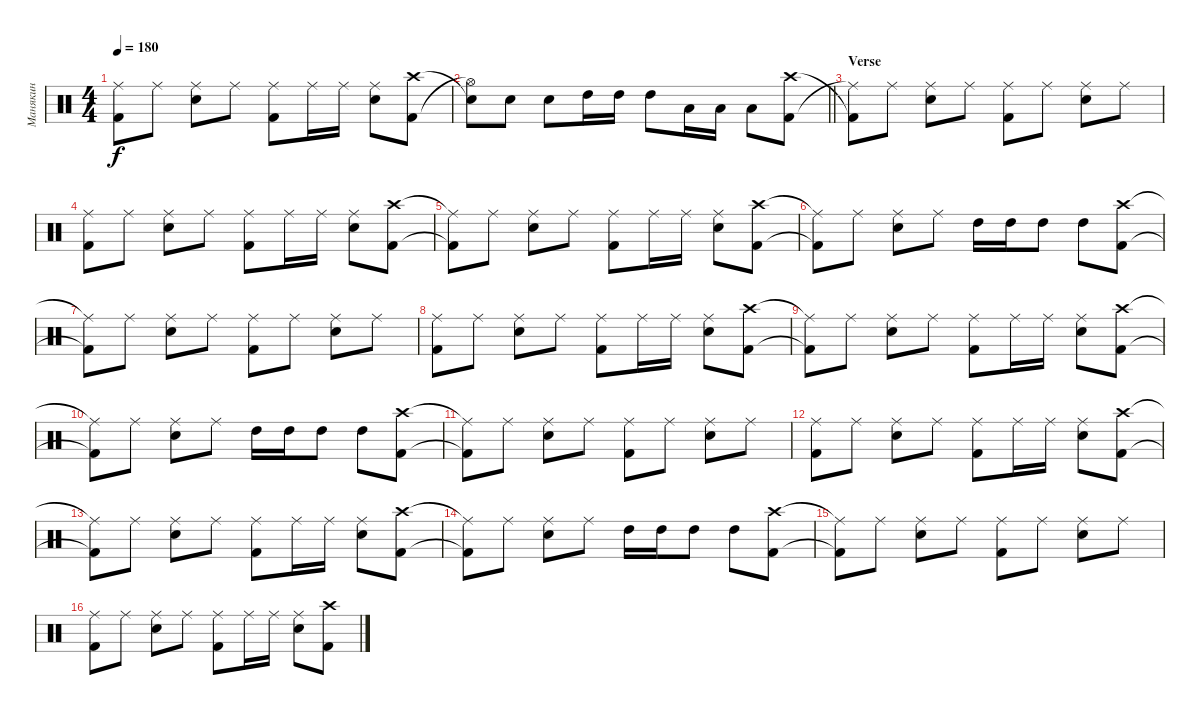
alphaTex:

\track ("Манякин" "Манякин") {instrument percussion}
\staff {score}
\articulation defaults
\ts (4 4)
\tempo 180
\clef neutral
\ks c
("Kick (hit) 2"{t} "Ride (middle)"{t}).8{dy f} "Ride (middle)".8 ("Snare (hit) 2" "Ride (middle)").8 "Ride (middle)".8 ("Kick (hit) 2" "Ride (middle)").8 "Ride (middle)".16 "Ride (middle)".16 ("Snare (hit) 2" "Ride (middle)").8 ("Kick (hit) 2" "Crash high (hit)").8 |
\barLineRight lightlight
("Hi-Hat (open)"{t} "Snare (hit)"{t}).8 "Snare (hit) 2".8 "Snare (hit) 2".8 "High Tom (hit)".16 "High Tom (hit)".16 "High Tom (hit)".8 "Low Tom (hit)".16 "Low Tom (hit)".16 "Low Tom (hit)".8 ("Kick (hit) 2" "Crash high (hit)").8 |
\section ("" "Verse")
("Ride (middle)"{t} "Kick (hit) 2"{t}).8 "Ride (middle)".8 ("Ride (middle)" "Snare (hit) 2").8 "Ride (middle)".8 ("Ride (middle)" "Kick (hit) 2").8 "Ride (middle)".8 ("Ride (middle)" "Snare (hit) 2").8 "Ride (middle)".8 |
("Kick (hit) 2" "Ride (middle)").8 "Ride (middle)".8 ("Snare (hit) 2" "Ride (middle)").8 "Ride (middle)".8 ("Kick (hit) 2" "Ride (middle)").8 "Ride (middle)".16 "Ride (middle)".16 ("Snare (hit) 2" "Ride (middle)").8 ("Kick (hit) 2" "Crash high (hit)").8 |
("Kick (hit) 2"{t} "Ride (middle)"{t}).8 "Ride (middle)".8 ("Snare (hit) 2" "Ride (middle)").8 "Ride (middle)".8 ("Kick (hit) 2" "Ride (middle)").8 "Ride (middle)".16 "Ride (middle)".16 ("Snare (hit) 2" "Ride (middle)").8 ("Kick (hit) 2" "Crash high (hit)").8 |
("Kick (hit) 2"{t} "Ride (middle)"{t}).8 "Ride (middle)".8 ("Snare (hit) 2" "Ride (middle)").8 "Ride (middle)".8 "High Tom (hit)".16 "High Tom (hit)".16 "High Tom (hit)".8 "High Tom (hit)".8 ("Crash high (hit)" "Kick (hit) 2").8 |
("Ride (middle)"{t} "Kick (hit) 2"{t}).8 "Ride (middle)".8 ("Ride (middle)" "Snare (hit) 2").8 "Ride (middle)".8 ("Ride (middle)" "Kick (hit) 2").8 "Ride (middle)".8 ("Ride (middle)" "Snare (hit) 2").8 "Ride (middle)".8 |
("Kick (hit) 2" "Ride (middle)").8 "Ride (middle)".8 ("Snare (hit) 2" "Ride (middle)").8 "Ride (middle)".8 ("Kick (hit) 2" "Ride (middle)").8 "Ride (middle)".16 "Ride (middle)".16 ("Snare (hit) 2" "Ride (middle)").8 ("Kick (hit) 2" "Crash high (hit)").8 |
("Kick (hit) 2"{t} "Ride (middle)"{t}).8 "Ride (middle)".8 ("Snare (hit) 2" "Ride (middle)").8 "Ride (middle)".8 ("Kick (hit) 2" "Ride (middle)").8 "Ride (middle)".16 "Ride (middle)".16 ("Snare (hit) 2" "Ride (middle)").8 ("Kick (hit) 2" "Crash high (hit)").8 |
("Kick (hit) 2"{t} "Ride (middle)"{t}).8 "Ride (middle)".8 ("Snare (hit) 2" "Ride (middle)").8 "Ride (middle)".8 "High Tom (hit)".16 "High Tom (hit)".16 "High Tom (hit)".8 "High Tom (hit)".8 ("Crash high (hit)" "Kick (hit) 2").8 |
("Ride (middle)"{t} "Kick (hit) 2"{t}).8 "Ride (middle)".8 ("Ride (middle)" "Snare (hit) 2").8 "Ride (middle)".8 ("Ride (middle)" "Kick (hit) 2").8 "Ride (middle)".8 ("Ride (middle)" "Snare (hit) 2").8 "Ride (middle)".8 |
("Kick (hit) 2" "Ride (middle)").8 "Ride (middle)".8 ("Snare (hit) 2" "Ride (middle)").8 "Ride (middle)".8 ("Kick (hit) 2" "Ride (middle)").8 "Ride (middle)".16 "Ride (middle)".16 ("Snare (hit) 2" "Ride (middle)").8 ("Kick (hit) 2" "Crash high (hit)").8 |
("Kick (hit) 2"{t} "Ride (middle)"{t}).8 "Ride (middle)".8 ("Snare (hit) 2" "Ride (middle)").8 "Ride (middle)".8 ("Kick (hit) 2" "Ride (middle)").8 "Ride (middle)".16 "Ride (middle)".16 ("Snare (hit) 2" "Ride (middle)").8 ("Kick (hit) 2" "Crash high (hit)").8 |
("Kick (hit) 2"{t} "Ride (middle)"{t}).8 "Ride (middle)".8 ("Snare (hit) 2" "Ride (middle)").8 "Ride (middle)".8 "High Tom (hit)".16 "High Tom (hit)".16 "High Tom (hit)".8 "High Tom (hit)".8 ("Crash high (hit)" "Kick (hit) 2").8 |
("Ride (middle)"{t} "Kick (hit) 2"{t}).8 "Ride (middle)".8 ("Ride (middle)" "Snare (hit) 2").8 "Ride (middle)".8 ("Ride (middle)" "Kick (hit) 2").8 "Ride (middle)".8 ("Ride (middle)" "Snare (hit) 2").8 "Ride (middle)".8 |
("Kick (hit) 2" "Ride (middle)").8 "Ride (middle)".8 ("Snare (hit) 2" "Ride (middle)").8 "Ride (middle)".8 ("Kick (hit) 2" "Ride (middle)").8 "Ride (middle)".16 "Ride (middle)".16 ("Snare (hit) 2" "Ride (middle)").8 ("Kick (hit) 2" "Crash high (hit)").8
